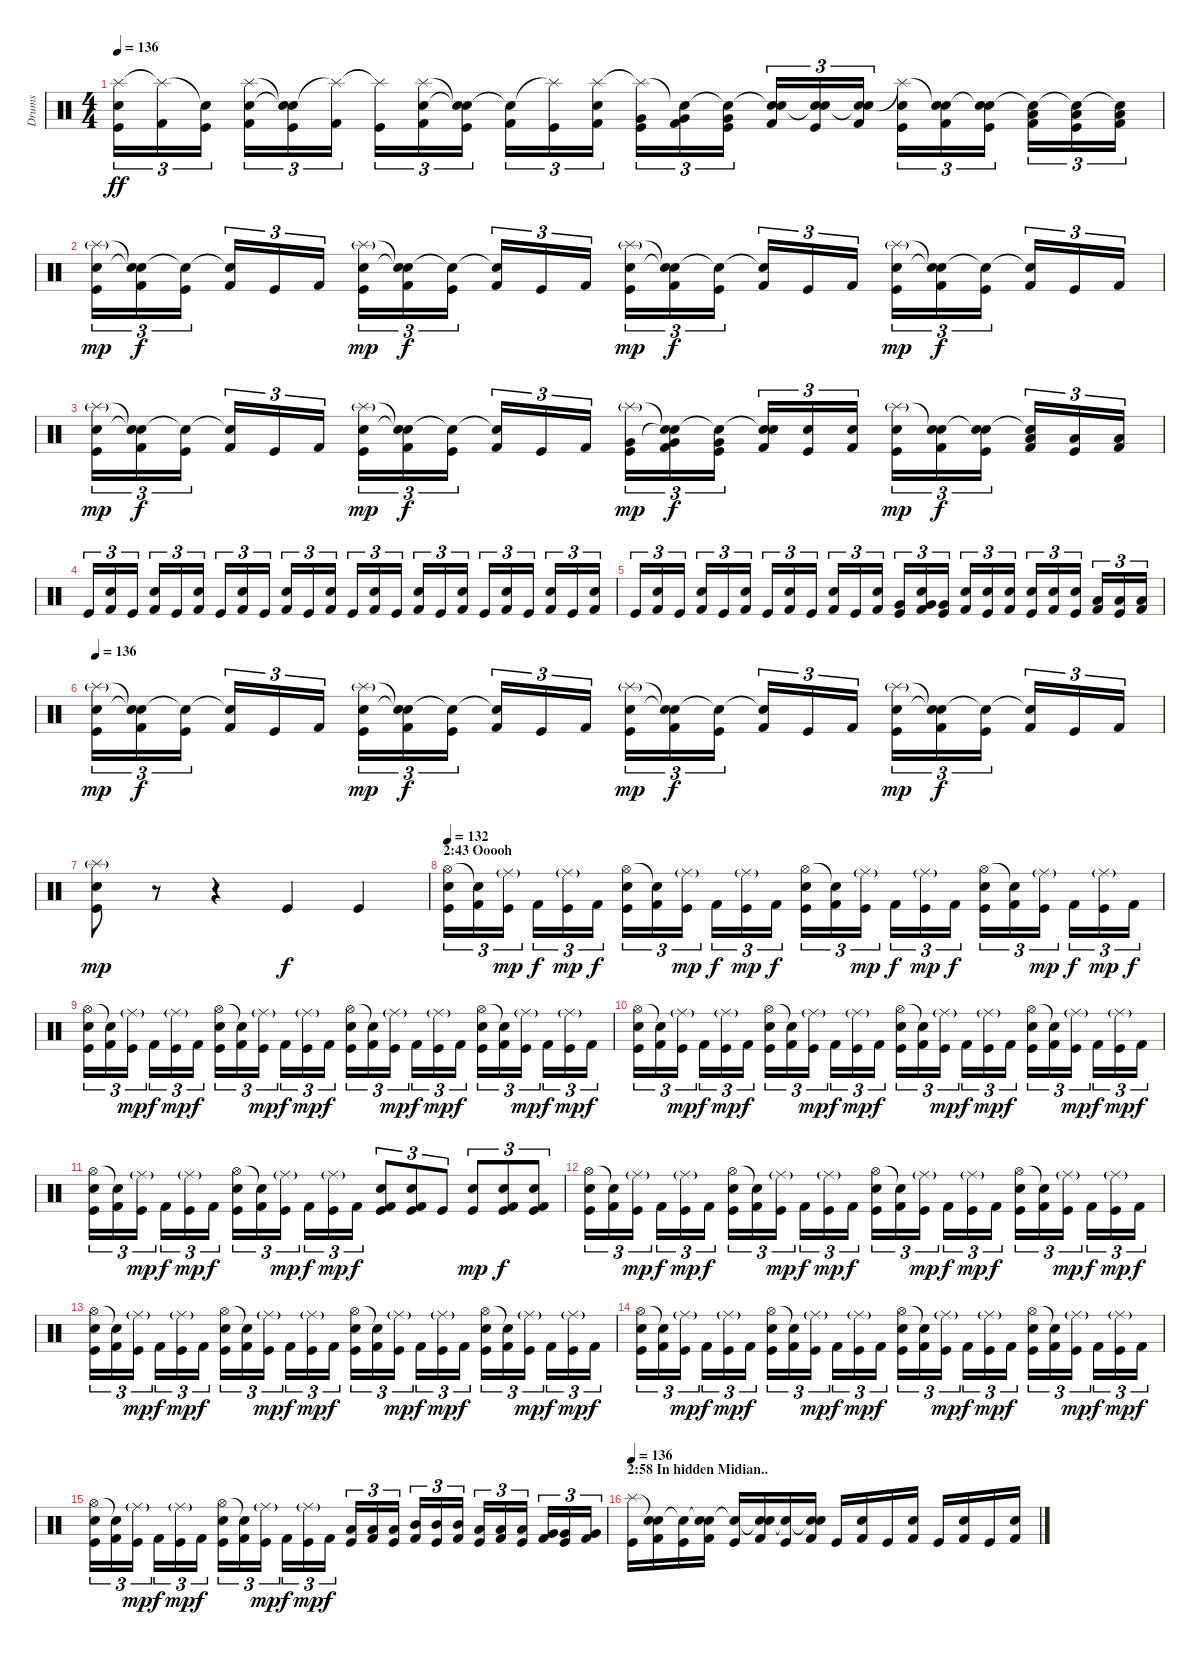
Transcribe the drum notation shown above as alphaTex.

\track ("Drums" "Drums") {instrument percussion}
\staff {score}
\articulation defaults
\ts (4 4)
\tempo 136
\clef neutral
\ks c
("Splash (hit)"{t} "Snare (hit) 2"{t} "Kick (hit)").16{tu (3 2) dy ff} ("Splash (hit)"{t} "Kick (hit) 2").16{tu (3 2)} ("Snare (hit)"{t} "Kick (hit)").16{tu (3 2)} ("Splash (hit)" "Snare (hit) 2" "Kick (hit) 2").16{tu (3 2)} ("Snare (hit)"{t} "Snare (hit)"{t} "Kick (hit)").16{tu (3 2)} ("Splash (hit)"{t} "Kick (hit) 2").16{tu (3 2)} ("Splash (hit)"{t} "Kick (hit)").16{tu (3 2)} ("Splash (hit)" "Snare (hit) 2" "Kick (hit) 2").16{tu (3 2)} ("Snare (hit)"{t} "Snare (hit)"{t} "Kick (hit)").16{tu (3 2)} ("Snare (hit)"{t} "Kick (hit) 2").16{tu (3 2)} ("Splash (hit)"{t} "Kick (hit)").16{tu (3 2)} ("Splash (hit)" "Snare (hit) 2" "Kick (hit) 2").16{tu (3 2)} ("Splash (hit)"{t} "Very Low Tom (hit)" "Kick (hit)").16{tu (3 2)} ("Snare (hit)"{t} "Very Low Tom (hit)" "Kick (hit) 2").16{tu (3 2)} ("Snare (hit)"{t} "Very Low Tom (hit)" "Kick (hit)").16{tu (3 2)} ("Snare (hit)"{t} "Snare (hit) 2" "Kick (hit) 2").16{tu (3 2)} ("Snare (hit)"{t} "Snare (hit) 2" "Kick (hit)").16{tu (3 2)} ("Snare (hit)"{t} "Snare (hit) 2" "Kick (hit) 2").16{tu (3 2)} ("Splash (hit)"{t} "Snare (hit) 2" "Kick (hit)").16{tu (3 2)} ("Snare (hit)"{t} "Snare (hit) 2" "Kick (hit) 2").16{tu (3 2)} ("Snare (hit)"{t} "Snare (hit) 2" "Kick (hit)").16{tu (3 2)} ("Snare (hit)"{t} "Low Floor Tom (hit)" "Kick (hit) 2").16{tu (3 2)} ("Snare (hit)"{t} "Low Floor Tom (hit)" "Kick (hit)").16{tu (3 2)} ("Snare (hit)"{t} "Low Floor Tom (hit)" "Kick (hit) 2").16{tu (3 2)} |
("Splash (hit)"{g} "Snare (hit) 2" "Kick (hit)").16{tu (3 2) dy mp} ("Snare (hit)"{t} "Snare (hit)"{t} "Kick (hit) 2").16{tu (3 2) dy f} ("Snare (hit)"{t} "Kick (hit)").16{tu (3 2)} ("Snare (hit)"{t} "Kick (hit) 2").16{tu (3 2)} "Kick (hit)".16{tu (3 2)} "Kick (hit) 2".16{tu (3 2)} ("Splash (hit)"{g} "Snare (hit) 2" "Kick (hit)").16{tu (3 2) dy mp} ("Snare (hit)"{t} "Snare (hit)"{t} "Kick (hit) 2").16{tu (3 2) dy f} ("Snare (hit)"{t} "Kick (hit)").16{tu (3 2)} ("Snare (hit)"{t} "Kick (hit) 2").16{tu (3 2)} "Kick (hit)".16{tu (3 2)} "Kick (hit) 2".16{tu (3 2)} ("Splash (hit)"{g} "Snare (hit) 2" "Kick (hit)").16{tu (3 2) dy mp} ("Snare (hit)"{t} "Snare (hit)"{t} "Kick (hit) 2").16{tu (3 2) dy f} ("Snare (hit)"{t} "Kick (hit)").16{tu (3 2)} ("Snare (hit)"{t} "Kick (hit) 2").16{tu (3 2)} "Kick (hit)".16{tu (3 2)} "Kick (hit) 2".16{tu (3 2)} ("Splash (hit)"{g} "Snare (hit) 2" "Kick (hit)").16{tu (3 2) dy mp} ("Snare (hit)"{t} "Snare (hit)"{t} "Kick (hit) 2").16{tu (3 2) dy f} ("Snare (hit)"{t} "Kick (hit)").16{tu (3 2)} ("Snare (hit)"{t} "Kick (hit) 2").16{tu (3 2)} "Kick (hit)".16{tu (3 2)} "Kick (hit) 2".16{tu (3 2)} |
("Splash (hit)"{g} "Snare (hit) 2" "Kick (hit)").16{tu (3 2) dy mp} ("Snare (hit)"{t} "Snare (hit)"{t} "Kick (hit) 2").16{tu (3 2) dy f} ("Snare (hit)"{t} "Kick (hit)").16{tu (3 2)} ("Snare (hit)"{t} "Kick (hit) 2").16{tu (3 2)} "Kick (hit)".16{tu (3 2)} "Kick (hit) 2".16{tu (3 2)} ("Splash (hit)"{g} "Snare (hit) 2" "Kick (hit)").16{tu (3 2) dy mp} ("Snare (hit)"{t} "Snare (hit)"{t} "Kick (hit) 2").16{tu (3 2) dy f} ("Snare (hit)"{t} "Kick (hit)").16{tu (3 2)} ("Snare (hit)"{t} "Kick (hit) 2").16{tu (3 2)} "Kick (hit)".16{tu (3 2)} "Kick (hit) 2".16{tu (3 2)} ("Splash (hit)"{g} "Very Low Tom (hit)" "Kick (hit)").16{tu (3 2) dy mp} ("Snare (hit)"{t} "Snare (hit)"{t} "Very Low Tom (hit)" "Kick (hit) 2").16{tu (3 2) dy f} ("Snare (hit)"{t} "Very Low Tom (hit)" "Kick (hit)").16{tu (3 2)} ("Snare (hit)"{t} "Snare (hit) 2" "Kick (hit) 2").16{tu (3 2)} ("Snare (hit) 2" "Kick (hit)").16{tu (3 2)} ("Snare (hit) 2" "Kick (hit) 2").16{tu (3 2)} ("Splash (hit)"{g} "Snare (hit) 2" "Kick (hit)").16{tu (3 2) dy mp} ("Snare (hit)"{t} "Snare (hit) 2" "Kick (hit) 2").16{tu (3 2) dy f} ("Snare (hit)"{t} "Snare (hit) 2" "Kick (hit)").16{tu (3 2)} ("Snare (hit)"{t} "Low Floor Tom (hit)" "Kick (hit) 2").16{tu (3 2)} ("Low Floor Tom (hit)" "Kick (hit)").16{tu (3 2)} ("Low Floor Tom (hit)" "Kick (hit) 2").16{tu (3 2)} |
"Kick (hit)".16{tu (3 2)} ("Snare (hit) 2" "Kick (hit) 2").16{tu (3 2)} "Kick (hit)".16{tu (3 2)} ("Snare (hit) 2" "Kick (hit) 2").16{tu (3 2)} "Kick (hit)".16{tu (3 2)} ("Snare (hit) 2" "Kick (hit) 2").16{tu (3 2)} "Kick (hit)".16{tu (3 2)} ("Snare (hit) 2" "Kick (hit) 2").16{tu (3 2)} "Kick (hit)".16{tu (3 2)} ("Snare (hit) 2" "Kick (hit) 2").16{tu (3 2)} "Kick (hit)".16{tu (3 2)} ("Snare (hit) 2" "Kick (hit) 2").16{tu (3 2)} "Kick (hit)".16{tu (3 2)} ("Snare (hit) 2" "Kick (hit) 2").16{tu (3 2)} "Kick (hit)".16{tu (3 2)} ("Snare (hit) 2" "Kick (hit) 2").16{tu (3 2)} "Kick (hit)".16{tu (3 2)} ("Snare (hit) 2" "Kick (hit) 2").16{tu (3 2)} "Kick (hit)".16{tu (3 2)} ("Snare (hit) 2" "Kick (hit) 2").16{tu (3 2)} "Kick (hit)".16{tu (3 2)} ("Snare (hit) 2" "Kick (hit) 2").16{tu (3 2)} "Kick (hit)".16{tu (3 2)} ("Snare (hit) 2" "Kick (hit) 2").16{tu (3 2)} |
"Kick (hit)".16{tu (3 2)} ("Snare (hit) 2" "Kick (hit) 2").16{tu (3 2)} "Kick (hit)".16{tu (3 2)} ("Snare (hit) 2" "Kick (hit) 2").16{tu (3 2)} "Kick (hit)".16{tu (3 2)} ("Snare (hit) 2" "Kick (hit) 2").16{tu (3 2)} "Kick (hit)".16{tu (3 2)} ("Snare (hit) 2" "Kick (hit) 2").16{tu (3 2)} "Kick (hit)".16{tu (3 2)} ("Snare (hit) 2" "Kick (hit) 2").16{tu (3 2)} "Kick (hit)".16{tu (3 2)} ("Snare (hit) 2" "Kick (hit) 2").16{tu (3 2)} ("Very Low Tom (hit)" "Kick (hit)").16{tu (3 2)} ("Snare (hit) 2" "Very Low Tom (hit)" "Kick (hit) 2").16{tu (3 2)} ("Very Low Tom (hit)" "Kick (hit)").16{tu (3 2)} ("Snare (hit) 2" "Kick (hit) 2").16{tu (3 2)} ("Snare (hit) 2" "Kick (hit)").16{tu (3 2)} ("Snare (hit) 2" "Kick (hit) 2").16{tu (3 2)} ("Snare (hit) 2" "Kick (hit)").16{tu (3 2)} ("Snare (hit) 2" "Kick (hit) 2").16{tu (3 2)} ("Snare (hit) 2" "Kick (hit)").16{tu (3 2)} ("Low Floor Tom (hit)" "Kick (hit) 2").16{tu (3 2)} ("Low Floor Tom (hit)" "Kick (hit)").16{tu (3 2)} ("Low Floor Tom (hit)" "Kick (hit) 2").16{tu (3 2)} |
\tempo 136
("Splash (hit)"{g} "Snare (hit) 2" "Kick (hit)").16{tu (3 2) dy mp} ("Snare (hit)"{t} "Snare (hit)"{t} "Kick (hit) 2").16{tu (3 2) dy f} ("Snare (hit)"{t} "Kick (hit)").16{tu (3 2)} ("Snare (hit)"{t} "Kick (hit) 2").16{tu (3 2)} "Kick (hit)".16{tu (3 2)} "Kick (hit) 2".16{tu (3 2)} ("Splash (hit)"{g} "Snare (hit) 2" "Kick (hit)").16{tu (3 2) dy mp} ("Snare (hit)"{t} "Snare (hit)"{t} "Kick (hit) 2").16{tu (3 2) dy f} ("Snare (hit)"{t} "Kick (hit)").16{tu (3 2)} ("Snare (hit)"{t} "Kick (hit) 2").16{tu (3 2)} "Kick (hit)".16{tu (3 2)} "Kick (hit) 2".16{tu (3 2)} ("Splash (hit)"{g} "Snare (hit) 2" "Kick (hit)").16{tu (3 2) dy mp} ("Snare (hit)"{t} "Snare (hit)"{t} "Kick (hit) 2").16{tu (3 2) dy f} ("Snare (hit)"{t} "Kick (hit)").16{tu (3 2)} ("Snare (hit)"{t} "Kick (hit) 2").16{tu (3 2)} "Kick (hit)".16{tu (3 2)} "Kick (hit) 2".16{tu (3 2)} ("Splash (hit)"{g} "Snare (hit) 2" "Kick (hit)").16{tu (3 2) dy mp} ("Snare (hit)"{t} "Snare (hit)"{t} "Kick (hit) 2").16{tu (3 2) dy f} ("Snare (hit)"{t} "Kick (hit)").16{tu (3 2)} ("Snare (hit)"{t} "Kick (hit) 2").16{tu (3 2)} "Kick (hit)".16{tu (3 2)} "Kick (hit) 2".16{tu (3 2)} |
("Splash (hit)"{g} "Snare (hit) 2" "Kick (hit)").8{dy mp} r.8 r.4 "Kick (hit)".4{dy f} "Kick (hit)".4 |
\section ("" "2:43 Ooooh")
\tempo 132
("Hi-Hat (open)" "Snare (hit) 2" "Kick (hit)").16{tu (3 2)} ("Snare (hit)"{t} "Kick (hit) 2").16{tu (3 2)} ("Ride (middle)"{g} "Kick (hit)").16{tu (3 2) dy mp} "Kick (hit) 2".16{tu (3 2) dy f} ("Ride (middle)"{g} "Kick (hit)").16{tu (3 2) dy mp} "Kick (hit) 2".16{tu (3 2) dy f} ("Hi-Hat (open)" "Snare (hit) 2" "Kick (hit)").16{tu (3 2)} ("Snare (hit)"{t} "Kick (hit) 2").16{tu (3 2)} ("Ride (middle)"{g} "Kick (hit)").16{tu (3 2) dy mp} "Kick (hit) 2".16{tu (3 2) dy f} ("Ride (middle)"{g} "Kick (hit)").16{tu (3 2) dy mp} "Kick (hit) 2".16{tu (3 2) dy f} ("Hi-Hat (open)" "Snare (hit) 2" "Kick (hit)").16{tu (3 2)} ("Snare (hit)"{t} "Kick (hit) 2").16{tu (3 2)} ("Ride (middle)"{g} "Kick (hit)").16{tu (3 2) dy mp} "Kick (hit) 2".16{tu (3 2) dy f} ("Ride (middle)"{g} "Kick (hit)").16{tu (3 2) dy mp} "Kick (hit) 2".16{tu (3 2) dy f} ("Hi-Hat (open)" "Snare (hit) 2" "Kick (hit)").16{tu (3 2)} ("Snare (hit)"{t} "Kick (hit) 2").16{tu (3 2)} ("Ride (middle)"{g} "Kick (hit)").16{tu (3 2) dy mp} "Kick (hit) 2".16{tu (3 2) dy f} ("Ride (middle)"{g} "Kick (hit)").16{tu (3 2) dy mp} "Kick (hit) 2".16{tu (3 2) dy f} |
("Hi-Hat (open)" "Snare (hit) 2" "Kick (hit)").16{tu (3 2)} ("Snare (hit)"{t} "Kick (hit) 2").16{tu (3 2)} ("Ride (middle)"{g} "Kick (hit)").16{tu (3 2) dy mp} "Kick (hit) 2".16{tu (3 2) dy f} ("Ride (middle)"{g} "Kick (hit)").16{tu (3 2) dy mp} "Kick (hit) 2".16{tu (3 2) dy f} ("Hi-Hat (open)" "Snare (hit) 2" "Kick (hit)").16{tu (3 2)} ("Snare (hit)"{t} "Kick (hit) 2").16{tu (3 2)} ("Ride (middle)"{g} "Kick (hit)").16{tu (3 2) dy mp} "Kick (hit) 2".16{tu (3 2) dy f} ("Ride (middle)"{g} "Kick (hit)").16{tu (3 2) dy mp} "Kick (hit) 2".16{tu (3 2) dy f} ("Hi-Hat (open)" "Snare (hit) 2" "Kick (hit)").16{tu (3 2)} ("Snare (hit)"{t} "Kick (hit) 2").16{tu (3 2)} ("Ride (middle)"{g} "Kick (hit)").16{tu (3 2) dy mp} "Kick (hit) 2".16{tu (3 2) dy f} ("Ride (middle)"{g} "Kick (hit)").16{tu (3 2) dy mp} "Kick (hit) 2".16{tu (3 2) dy f} ("Hi-Hat (open)" "Snare (hit) 2" "Kick (hit)").16{tu (3 2)} ("Snare (hit)"{t} "Kick (hit) 2").16{tu (3 2)} ("Ride (middle)"{g} "Kick (hit)").16{tu (3 2) dy mp} "Kick (hit) 2".16{tu (3 2) dy f} ("Ride (middle)"{g} "Kick (hit)").16{tu (3 2) dy mp} "Kick (hit) 2".16{tu (3 2) dy f} |
("Hi-Hat (open)" "Snare (hit) 2" "Kick (hit)").16{tu (3 2)} ("Snare (hit)"{t} "Kick (hit) 2").16{tu (3 2)} ("Ride (middle)"{g} "Kick (hit)").16{tu (3 2) dy mp} "Kick (hit) 2".16{tu (3 2) dy f} ("Ride (middle)"{g} "Kick (hit)").16{tu (3 2) dy mp} "Kick (hit) 2".16{tu (3 2) dy f} ("Hi-Hat (open)" "Snare (hit) 2" "Kick (hit)").16{tu (3 2)} ("Snare (hit)"{t} "Kick (hit) 2").16{tu (3 2)} ("Ride (middle)"{g} "Kick (hit)").16{tu (3 2) dy mp} "Kick (hit) 2".16{tu (3 2) dy f} ("Ride (middle)"{g} "Kick (hit)").16{tu (3 2) dy mp} "Kick (hit) 2".16{tu (3 2) dy f} ("Hi-Hat (open)" "Snare (hit) 2" "Kick (hit)").16{tu (3 2)} ("Snare (hit)"{t} "Kick (hit) 2").16{tu (3 2)} ("Ride (middle)"{g} "Kick (hit)").16{tu (3 2) dy mp} "Kick (hit) 2".16{tu (3 2) dy f} ("Ride (middle)"{g} "Kick (hit)").16{tu (3 2) dy mp} "Kick (hit) 2".16{tu (3 2) dy f} ("Hi-Hat (open)" "Snare (hit) 2" "Kick (hit)").16{tu (3 2)} ("Snare (hit)"{t} "Kick (hit) 2").16{tu (3 2)} ("Ride (middle)"{g} "Kick (hit)").16{tu (3 2) dy mp} "Kick (hit) 2".16{tu (3 2) dy f} ("Ride (middle)"{g} "Kick (hit)").16{tu (3 2) dy mp} "Kick (hit) 2".16{tu (3 2) dy f} |
("Hi-Hat (open)" "Snare (hit) 2" "Kick (hit)").16{tu (3 2)} ("Snare (hit)"{t} "Kick (hit) 2").16{tu (3 2)} ("Ride (middle)"{g} "Kick (hit)").16{tu (3 2) dy mp} "Kick (hit) 2".16{tu (3 2) dy f} ("Ride (middle)"{g} "Kick (hit)").16{tu (3 2) dy mp} "Kick (hit) 2".16{tu (3 2) dy f} ("Hi-Hat (open)" "Snare (hit) 2" "Kick (hit)").16{tu (3 2)} ("Snare (hit)"{t} "Kick (hit) 2").16{tu (3 2)} ("Ride (middle)"{g} "Kick (hit)").16{tu (3 2) dy mp} "Kick (hit) 2".16{tu (3 2) dy f} ("Ride (middle)"{g} "Kick (hit)").16{tu (3 2) dy mp} "Kick (hit) 2".16{tu (3 2) dy f} ("Snare (hit) 2" "Kick (hit) 2" "Kick (hit)").8{tu (3 2)} ("Snare (hit) 2" "Kick (hit) 2" "Kick (hit)").8{tu (3 2)} "Kick (hit)".8{tu (3 2)} ("Snare (hit) 2" "Kick (hit)").8{tu (3 2) dy mp} ("Snare (hit) 2" "Kick (hit) 2" "Kick (hit)").8{tu (3 2) dy f} ("Snare (hit) 2" "Kick (hit) 2" "Kick (hit)").8{tu (3 2)} |
("Hi-Hat (open)" "Snare (hit) 2" "Kick (hit)").16{tu (3 2)} ("Snare (hit)"{t} "Kick (hit) 2").16{tu (3 2)} ("Ride (middle)"{g} "Kick (hit)").16{tu (3 2) dy mp} "Kick (hit) 2".16{tu (3 2) dy f} ("Ride (middle)"{g} "Kick (hit)").16{tu (3 2) dy mp} "Kick (hit) 2".16{tu (3 2) dy f} ("Hi-Hat (open)" "Snare (hit) 2" "Kick (hit)").16{tu (3 2)} ("Snare (hit)"{t} "Kick (hit) 2").16{tu (3 2)} ("Ride (middle)"{g} "Kick (hit)").16{tu (3 2) dy mp} "Kick (hit) 2".16{tu (3 2) dy f} ("Ride (middle)"{g} "Kick (hit)").16{tu (3 2) dy mp} "Kick (hit) 2".16{tu (3 2) dy f} ("Hi-Hat (open)" "Snare (hit) 2" "Kick (hit)").16{tu (3 2)} ("Snare (hit)"{t} "Kick (hit) 2").16{tu (3 2)} ("Ride (middle)"{g} "Kick (hit)").16{tu (3 2) dy mp} "Kick (hit) 2".16{tu (3 2) dy f} ("Ride (middle)"{g} "Kick (hit)").16{tu (3 2) dy mp} "Kick (hit) 2".16{tu (3 2) dy f} ("Hi-Hat (open)" "Snare (hit) 2" "Kick (hit)").16{tu (3 2)} ("Snare (hit)"{t} "Kick (hit) 2").16{tu (3 2)} ("Ride (middle)"{g} "Kick (hit)").16{tu (3 2) dy mp} "Kick (hit) 2".16{tu (3 2) dy f} ("Ride (middle)"{g} "Kick (hit)").16{tu (3 2) dy mp} "Kick (hit) 2".16{tu (3 2) dy f} |
("Hi-Hat (open)" "Snare (hit) 2" "Kick (hit)").16{tu (3 2)} ("Snare (hit)"{t} "Kick (hit) 2").16{tu (3 2)} ("Ride (middle)"{g} "Kick (hit)").16{tu (3 2) dy mp} "Kick (hit) 2".16{tu (3 2) dy f} ("Ride (middle)"{g} "Kick (hit)").16{tu (3 2) dy mp} "Kick (hit) 2".16{tu (3 2) dy f} ("Hi-Hat (open)" "Snare (hit) 2" "Kick (hit)").16{tu (3 2)} ("Snare (hit)"{t} "Kick (hit) 2").16{tu (3 2)} ("Ride (middle)"{g} "Kick (hit)").16{tu (3 2) dy mp} "Kick (hit) 2".16{tu (3 2) dy f} ("Ride (middle)"{g} "Kick (hit)").16{tu (3 2) dy mp} "Kick (hit) 2".16{tu (3 2) dy f} ("Hi-Hat (open)" "Snare (hit) 2" "Kick (hit)").16{tu (3 2)} ("Snare (hit)"{t} "Kick (hit) 2").16{tu (3 2)} ("Ride (middle)"{g} "Kick (hit)").16{tu (3 2) dy mp} "Kick (hit) 2".16{tu (3 2) dy f} ("Ride (middle)"{g} "Kick (hit)").16{tu (3 2) dy mp} "Kick (hit) 2".16{tu (3 2) dy f} ("Hi-Hat (open)" "Snare (hit) 2" "Kick (hit)").16{tu (3 2)} ("Snare (hit)"{t} "Kick (hit) 2").16{tu (3 2)} ("Ride (middle)"{g} "Kick (hit)").16{tu (3 2) dy mp} "Kick (hit) 2".16{tu (3 2) dy f} ("Ride (middle)"{g} "Kick (hit)").16{tu (3 2) dy mp} "Kick (hit) 2".16{tu (3 2) dy f} |
("Hi-Hat (open)" "Snare (hit) 2" "Kick (hit)").16{tu (3 2)} ("Snare (hit)"{t} "Kick (hit) 2").16{tu (3 2)} ("Ride (middle)"{g} "Kick (hit)").16{tu (3 2) dy mp} "Kick (hit) 2".16{tu (3 2) dy f} ("Ride (middle)"{g} "Kick (hit)").16{tu (3 2) dy mp} "Kick (hit) 2".16{tu (3 2) dy f} ("Hi-Hat (open)" "Snare (hit) 2" "Kick (hit)").16{tu (3 2)} ("Snare (hit)"{t} "Kick (hit) 2").16{tu (3 2)} ("Ride (middle)"{g} "Kick (hit)").16{tu (3 2) dy mp} "Kick (hit) 2".16{tu (3 2) dy f} ("Ride (middle)"{g} "Kick (hit)").16{tu (3 2) dy mp} "Kick (hit) 2".16{tu (3 2) dy f} ("Hi-Hat (open)" "Snare (hit) 2" "Kick (hit)").16{tu (3 2)} ("Snare (hit)"{t} "Kick (hit) 2").16{tu (3 2)} ("Ride (middle)"{g} "Kick (hit)").16{tu (3 2) dy mp} "Kick (hit) 2".16{tu (3 2) dy f} ("Ride (middle)"{g} "Kick (hit)").16{tu (3 2) dy mp} "Kick (hit) 2".16{tu (3 2) dy f} ("Hi-Hat (open)" "Snare (hit) 2" "Kick (hit)").16{tu (3 2)} ("Snare (hit)"{t} "Kick (hit) 2").16{tu (3 2)} ("Ride (middle)"{g} "Kick (hit)").16{tu (3 2) dy mp} "Kick (hit) 2".16{tu (3 2) dy f} ("Ride (middle)"{g} "Kick (hit)").16{tu (3 2) dy mp} "Kick (hit) 2".16{tu (3 2) dy f} |
("Hi-Hat (open)" "Snare (hit) 2" "Kick (hit)").16{tu (3 2)} ("Snare (hit)"{t} "Kick (hit) 2").16{tu (3 2)} ("Ride (middle)"{g} "Kick (hit)").16{tu (3 2) dy mp} "Kick (hit) 2".16{tu (3 2) dy f} ("Ride (middle)"{g} "Kick (hit)").16{tu (3 2) dy mp} "Kick (hit) 2".16{tu (3 2) dy f} ("Hi-Hat (open)" "Snare (hit) 2" "Kick (hit)").16{tu (3 2)} ("Snare (hit)"{t} "Kick (hit) 2").16{tu (3 2)} ("Ride (middle)"{g} "Kick (hit)").16{tu (3 2) dy mp} "Kick (hit) 2".16{tu (3 2) dy f} ("Ride (middle)"{g} "Kick (hit)").16{tu (3 2) dy mp} "Kick (hit) 2".16{tu (3 2) dy f} ("Low Floor Tom (hit)" "Kick (hit)").16{tu (3 2)} ("Low Floor Tom (hit)" "Kick (hit) 2").16{tu (3 2)} ("Low Floor Tom (hit)" "Kick (hit)").16{tu (3 2)} ("Mid Tom (hit)" "Kick (hit) 2").16{tu (3 2)} ("Mid Tom (hit)" "Kick (hit)").16{tu (3 2)} ("Mid Tom (hit)" "Kick (hit) 2").16{tu (3 2)} ("Low Tom (hit)" "Kick (hit)").16{tu (3 2)} ("Low Tom (hit)" "Kick (hit) 2").16{tu (3 2)} ("Low Tom (hit)" "Kick (hit)").16{tu (3 2)} ("Very Low Tom (hit)" "Kick (hit) 2").16{tu (3 2)} ("Very Low Tom (hit)" "Kick (hit)").16{tu (3 2)} ("Very Low Tom (hit)" "Kick (hit) 2").16{tu (3 2)} |
\section ("" "2:58 In hidden Midian..")
\tempo 136
("Splash (hit)" "Kick (hit)").16 ("Snare (hit)"{t} "Snare (hit) 2" "Kick (hit) 2").16 ("Snare (hit)"{t} "Kick (hit)").16 ("Snare (hit)"{t} "Snare (hit) 2" "Kick (hit) 2").16 ("Snare (hit)"{t} "Kick (hit)").16 ("Snare (hit)"{t} "Snare (hit) 2" "Kick (hit) 2").16 ("Snare (hit)"{t} "Kick (hit)").16 ("Snare (hit)"{t} "Snare (hit) 2" "Kick (hit) 2").16 "Kick (hit)".16 ("Snare (hit) 2" "Kick (hit) 2").16 "Kick (hit)".16 ("Snare (hit) 2" "Kick (hit) 2").16 "Kick (hit)".16 ("Snare (hit) 2" "Kick (hit) 2").16 "Kick (hit)".16 ("Snare (hit) 2" "Kick (hit) 2").16
